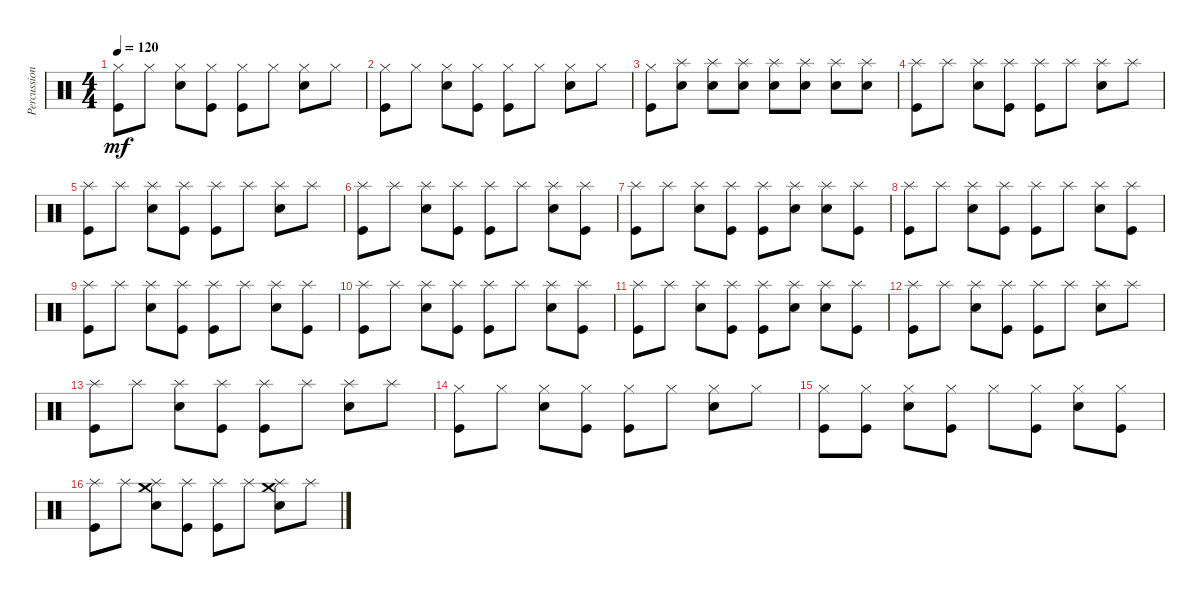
\track ("Percussion" "Percussion") {instrument percussion}
\staff {score}
\articulation defaults
\ts (4 4)
\tempo 120
\clef neutral
\ks c
("Hi-Hat (closed)" "Kick (hit)").8{dy mf} "Hi-Hat (closed)".8 ("Hi-Hat (closed)" "Snare (hit) 2").8 ("Hi-Hat (closed)" "Kick (hit)").8 ("Hi-Hat (closed)" "Kick (hit)").8 "Hi-Hat (closed)".8 ("Hi-Hat (closed)" "Snare (hit) 2").8 "Hi-Hat (closed)".8 |
("Hi-Hat (closed)" "Kick (hit)").8 "Hi-Hat (closed)".8 ("Hi-Hat (closed)" "Snare (hit) 2").8 ("Hi-Hat (closed)" "Kick (hit)").8 ("Hi-Hat (closed)" "Kick (hit)").8 "Hi-Hat (closed)".8 ("Hi-Hat (closed)" "Snare (hit) 2").8 "Hi-Hat (closed)".8 |
("Hi-Hat (closed)" "Kick (hit)").8 ("Splash (hit)" "Snare (hit) 2").8 ("Splash (hit)" "Snare (hit) 2").8 ("Splash (hit)" "Snare (hit) 2").8 ("Splash (hit)" "Snare (hit) 2").8 ("Splash (hit)" "Snare (hit) 2").8 ("Splash (hit)" "Snare (hit) 2").8 ("Splash (hit)" "Snare (hit) 2").8 |
("Splash (hit)" "Kick (hit)").8 "Splash (hit)".8 ("Splash (hit)" "Snare (hit) 2").8 ("Splash (hit)" "Kick (hit)").8 ("Splash (hit)" "Kick (hit)").8 "Splash (hit)".8 ("Splash (hit)" "Snare (hit) 2").8 "Splash (hit)".8 |
("Splash (hit)" "Kick (hit)").8 "Splash (hit)".8 ("Splash (hit)" "Snare (hit) 2").8 ("Splash (hit)" "Kick (hit)").8 ("Splash (hit)" "Kick (hit)").8 "Splash (hit)".8 ("Splash (hit)" "Snare (hit) 2").8 "Splash (hit)".8 |
("Splash (hit)" "Kick (hit)").8 "Splash (hit)".8 ("Splash (hit)" "Snare (hit) 2").8 ("Splash (hit)" "Kick (hit)").8 ("Splash (hit)" "Kick (hit)").8 "Splash (hit)".8 ("Splash (hit)" "Snare (hit) 2").8 ("Splash (hit)" "Kick (hit)").8 |
("Splash (hit)" "Kick (hit)").8 "Splash (hit)".8 ("Splash (hit)" "Snare (hit) 2").8 ("Splash (hit)" "Kick (hit)").8 ("Splash (hit)" "Kick (hit)").8 ("Splash (hit)" "Snare (hit) 2").8 ("Splash (hit)" "Snare (hit) 2").8 ("Splash (hit)" "Kick (hit)").8 |
("Splash (hit)" "Kick (hit)").8 "Splash (hit)".8 ("Splash (hit)" "Snare (hit) 2").8 ("Splash (hit)" "Kick (hit)").8 ("Splash (hit)" "Kick (hit)").8 "Splash (hit)".8 ("Splash (hit)" "Snare (hit) 2").8 ("Splash (hit)" "Kick (hit)").8 |
("Splash (hit)" "Kick (hit)").8 "Splash (hit)".8 ("Splash (hit)" "Snare (hit) 2").8 ("Splash (hit)" "Kick (hit)").8 ("Splash (hit)" "Kick (hit)").8 "Splash (hit)".8 ("Splash (hit)" "Snare (hit) 2").8 ("Splash (hit)" "Kick (hit)").8 |
("Splash (hit)" "Kick (hit)").8 "Splash (hit)".8 ("Splash (hit)" "Snare (hit) 2").8 ("Splash (hit)" "Kick (hit)").8 ("Splash (hit)" "Kick (hit)").8 "Splash (hit)".8 ("Splash (hit)" "Snare (hit) 2").8 ("Splash (hit)" "Kick (hit)").8 |
("Splash (hit)" "Kick (hit)").8 "Splash (hit)".8 ("Splash (hit)" "Snare (hit) 2").8 ("Splash (hit)" "Kick (hit)").8 ("Splash (hit)" "Kick (hit)").8 ("Splash (hit)" "Snare (hit) 2").8 ("Splash (hit)" "Snare (hit) 2").8 ("Splash (hit)" "Kick (hit)").8 |
("Splash (hit)" "Kick (hit)").8 "Splash (hit)".8 ("Splash (hit)" "Snare (hit) 2").8 ("Splash (hit)" "Kick (hit)").8 ("Splash (hit)" "Kick (hit)").8 "Splash (hit)".8 ("Splash (hit)" "Snare (hit) 2").8 "Splash (hit)".8 |
("Splash (hit)" "Kick (hit)").8 "Splash (hit)".8 ("Splash (hit)" "Snare (hit) 2").8 ("Splash (hit)" "Kick (hit)").8 ("Splash (hit)" "Kick (hit)").8 "Splash (hit)".8 ("Splash (hit)" "Snare (hit) 2").8 "Splash (hit)".8 |
("Hi-Hat (closed)" "Kick (hit)").8 "Hi-Hat (closed)".8 ("Hi-Hat (closed)" "Snare (hit) 2").8 ("Hi-Hat (closed)" "Kick (hit)").8 ("Hi-Hat (closed)" "Kick (hit)").8 "Hi-Hat (closed)".8 ("Hi-Hat (closed)" "Snare (hit) 2").8 "Hi-Hat (closed)".8 |
("Hi-Hat (closed)" "Kick (hit)").8 ("Hi-Hat (closed)" "Kick (hit)").8 ("Hi-Hat (closed)" "Snare (hit) 2").8 ("Hi-Hat (closed)" "Kick (hit)").8 "Hi-Hat (closed)".8 ("Hi-Hat (closed)" "Kick (hit)").8 ("Hi-Hat (closed)" "Snare (hit) 2").8 ("Hi-Hat (closed)" "Kick (hit)").8 |
("Splash (hit)" "Kick (hit)").8 "Splash (hit)".8 ("Splash (hit)" "Crash medium (hit)" "Snare (hit) 2").8 ("Splash (hit)" "Kick (hit)").8 ("Splash (hit)" "Kick (hit)").8 "Splash (hit)".8 ("Splash (hit)" "Crash medium (hit)" "Snare (hit) 2").8 "Splash (hit)".8
